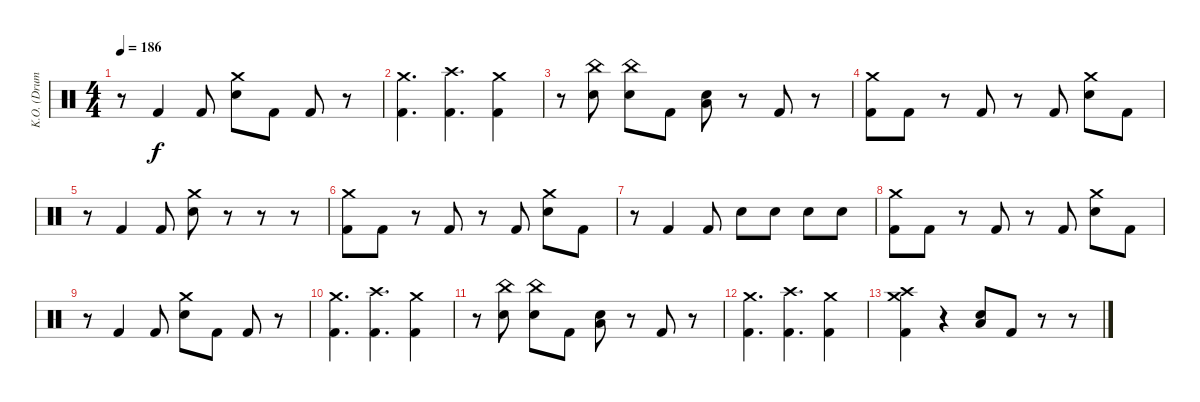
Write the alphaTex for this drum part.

\track ("K.O. (Drums)" "K.O. (Drum") {instrument percussion}
\staff {score}
\articulation defaults
\ts (4 4)
\tempo 186
\clef neutral
\ks c
r.8{dy f} "Kick (hit) 2".4 "Kick (hit) 2".8 ("Crash medium (hit)" "Electric Snare (hit)").8 "Kick (hit) 2".8 "Kick (hit) 2".8 r.8 |
("Crash medium (hit)" "Kick (hit) 2").4{d} ("Crash high (hit)" "Kick (hit) 2").4{d} ("Crash medium (hit)" "Kick (hit) 2").4 |
r.8 ("China (hit)" "Electric Snare (hit)").8 ("China (hit)" "Electric Snare (hit)").8 "Kick (hit) 2".8 ("Low Floor Tom (hit)" "Electric Snare (hit)").8 r.8 "Kick (hit) 2".8 r.8 |
("Crash medium (hit)" "Kick (hit) 2").8 "Kick (hit) 2".8 r.8 "Kick (hit) 2".8 r.8 "Kick (hit) 2".8 ("Crash medium (hit)" "Electric Snare (hit)").8 "Kick (hit) 2".8 |
r.8 "Kick (hit) 2".4 "Kick (hit) 2".8 ("Crash medium (hit)" "Electric Snare (hit)").8 r.8 r.8 r.8 |
("Crash medium (hit)" "Kick (hit) 2").8 "Kick (hit) 2".8 r.8 "Kick (hit) 2".8 r.8 "Kick (hit) 2".8 ("Crash medium (hit)" "Electric Snare (hit)").8 "Kick (hit) 2".8 |
r.8 "Kick (hit) 2".4 "Kick (hit) 2".8 "Electric Snare (hit)".8 "Electric Snare (hit)".8 "Electric Snare (hit)".8 "Electric Snare (hit)".8 |
("Crash medium (hit)" "Kick (hit) 2").8 "Kick (hit) 2".8 r.8 "Kick (hit) 2".8 r.8 "Kick (hit) 2".8 ("Crash medium (hit)" "Electric Snare (hit)").8 "Kick (hit) 2".8 |
r.8 "Kick (hit) 2".4 "Kick (hit) 2".8 ("Crash medium (hit)" "Electric Snare (hit)").8 "Kick (hit) 2".8 "Kick (hit) 2".8 r.8 |
("Crash medium (hit)" "Kick (hit) 2").4{d} ("Crash high (hit)" "Kick (hit) 2").4{d} ("Crash medium (hit)" "Kick (hit) 2").4 |
r.8 ("China (hit)" "Electric Snare (hit)").8 ("China (hit)" "Electric Snare (hit)").8 "Kick (hit) 2".8 ("Low Floor Tom (hit)" "Electric Snare (hit)").8 r.8 "Kick (hit) 2".8 r.8 |
("Crash medium (hit)" "Kick (hit) 2").4{d} ("Crash high (hit)" "Kick (hit) 2").4{d} ("Crash medium (hit)" "Kick (hit) 2").4 |
("Crash high (hit)" "Crash medium (hit)" "Kick (hit) 2").4 r.4 ("Low Floor Tom (hit)" "Electric Snare (hit)").8 "Kick (hit) 2".8 r.8 r.8
